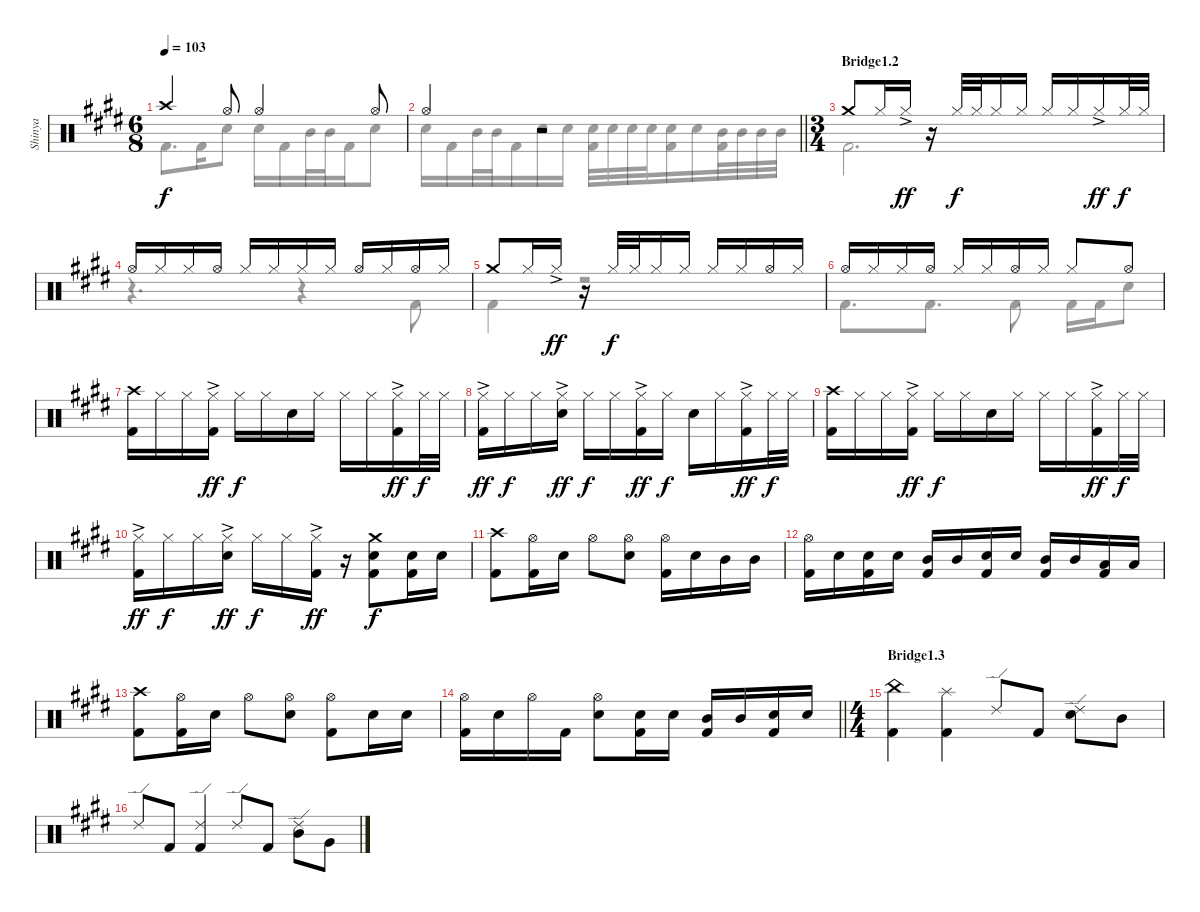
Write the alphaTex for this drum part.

\track ("Shinya" "Shinya") {instrument percussion}
\staff {score}
\articulation defaults
\voice
\ts (6 8)
\tempo 103
\clef neutral
\ks c#minor "Crash high (hit)".4{dy f} "Hi-Hat (open)".8 "Hi-Hat (open)".4 "Hi-Hat (open)".8
|
\barLineRight lightlight "Hi-Hat (open)".4
r.2 |
\ts (3 4)
\section ("" "Bridge1.2")
"Crash medium (hit)".8 "Hi-Hat (closed)".16 "Hi-Hat (closed)"{ac}.16{dy ff} r.16 "Hi-Hat (closed)".32{dy f} "Hi-Hat (closed)".32 "Hi-Hat (closed)".16 "Hi-Hat (closed)".16 "Hi-Hat (closed)".16 "Hi-Hat (closed)".16 "Hi-Hat (closed)"{ac}.16{dy ff} "Hi-Hat (closed)".32{dy f} "Hi-Hat (closed)".32 |
"Hi-Hat (open)".16 "Hi-Hat (closed)".16 "Hi-Hat (closed)".16 "Hi-Hat (open)".16 "Hi-Hat (closed)".16 "Hi-Hat (closed)".16 "Hi-Hat (closed)".16 "Hi-Hat (closed)".16 "Hi-Hat (open)".16 "Hi-Hat (closed)".16 "Hi-Hat (open)".16 "Hi-Hat (closed)".16 |
"Crash medium (hit)".8 "Hi-Hat (closed)".16 "Hi-Hat (closed)"{ac}.16{dy ff} r.16 "Hi-Hat (closed)".32{dy f} "Hi-Hat (closed)".32 "Hi-Hat (closed)".16 "Hi-Hat (closed)".16 "Hi-Hat (closed)".16 "Hi-Hat (closed)".16 "Hi-Hat (open)".16 "Hi-Hat (closed)".16 |
"Hi-Hat (open)".16 "Hi-Hat (closed)".16 "Hi-Hat (closed)".16 "Hi-Hat (open)".16 "Hi-Hat (closed)".16 "Hi-Hat (closed)".16 "Hi-Hat (open)".16 "Hi-Hat (closed)".16 "Hi-Hat (closed)".8 "Hi-Hat (open)".8 |
("Crash high (hit)" "Kick (hit) 2").16 "Hi-Hat (closed)".16 "Hi-Hat (closed)".16 ("Hi-Hat (closed)"{ac} "Kick (hit) 2").16{dy ff} "Hi-Hat (closed)".16{dy f} "Hi-Hat (closed)".16 "Snare (hit) 2".16 "Hi-Hat (closed)".16 "Hi-Hat (closed)".16 "Hi-Hat (closed)".16 ("Hi-Hat (closed)"{ac} "Kick (hit) 2").16{dy ff} "Hi-Hat (closed)".32{dy f} "Hi-Hat (closed)".32 |
("Hi-Hat (closed)"{ac} "Kick (hit) 2").16{dy ff} "Hi-Hat (closed)".16{dy f} "Hi-Hat (closed)".16 ("Hi-Hat (closed)"{ac} "Snare (hit) 2").16{dy ff} "Hi-Hat (closed)".16{dy f} "Hi-Hat (closed)".16 ("Hi-Hat (closed)"{ac} "Kick (hit) 2").16{dy ff} "Hi-Hat (closed)".16{dy f} "Snare (hit) 2".16 "Hi-Hat (closed)".16 ("Hi-Hat (closed)"{ac} "Kick (hit) 2").16{dy ff} "Hi-Hat (closed)".32{dy f} "Hi-Hat (closed)".32 |
("Crash high (hit)" "Kick (hit) 2").16 "Hi-Hat (closed)".16 "Hi-Hat (closed)".16 ("Hi-Hat (closed)"{ac} "Kick (hit) 2").16{dy ff} "Hi-Hat (closed)".16{dy f} "Hi-Hat (closed)".16 "Snare (hit) 2".16 "Hi-Hat (closed)".16 "Hi-Hat (closed)".16 "Hi-Hat (closed)".16 ("Hi-Hat (closed)"{ac} "Kick (hit) 2").16{dy ff} "Hi-Hat (closed)".32{dy f} "Hi-Hat (closed)".32 |
("Hi-Hat (closed)"{ac} "Kick (hit) 2").16{dy ff} "Hi-Hat (closed)".16{dy f} "Hi-Hat (closed)".16 ("Hi-Hat (closed)"{ac} "Snare (hit) 2").16{dy ff} "Hi-Hat (closed)".16{dy f} "Hi-Hat (closed)".16 ("Hi-Hat (closed)"{ac} "Kick (hit) 2").16{dy ff} r.16 ("Crash medium (hit)" "Snare (hit) 2" "Kick (hit) 2").8{dy f} ("Snare (hit) 2" "Kick (hit) 2").16 "Snare (hit) 2".16 |
("Crash high (hit)" "Kick (hit) 2").8 ("Hi-Hat (open)" "Kick (hit) 2").16 "Snare (hit) 2".16 "Hi-Hat (open)".8 ("Hi-Hat (open)" "Snare (hit) 2").8 ("Hi-Hat (open)" "Kick (hit) 2").16 "Snare (hit) 2".16 "Mid Tom (hit)".16 "Mid Tom (hit)".16 |
("Hi-Hat (open)" "Kick (hit) 2").16 "Snare (hit) 2".16 ("Snare (hit) 2" "Kick (hit) 2").16 "Snare (hit) 2".16 ("Mid Tom (hit)" "Kick (hit) 2").16 "Mid Tom (hit)".16 ("Snare (hit) 2" "Kick (hit) 2").16 "Snare (hit) 2".16 ("Mid Tom (hit)" "Kick (hit) 2").16 "Mid Tom (hit)".16 ("Low Tom (hit)" "Kick (hit) 2").16 "Low Tom (hit)".16 |
("Crash high (hit)" "Kick (hit) 2").8 ("Hi-Hat (open)" "Kick (hit) 2").16 "Snare (hit) 2".16 "Hi-Hat (open)".8 ("Hi-Hat (open)" "Snare (hit) 2").8 ("Hi-Hat (open)" "Kick (hit) 2").8 "Snare (hit) 2".16 "Snare (hit) 2".16 |
\barLineRight lightlight
("Hi-Hat (open)" "Kick (hit) 2").16 "Snare (hit) 2".16 "Hi-Hat (open)".16 "Kick (hit) 2".16 ("Hi-Hat (open)" "Snare (hit) 2").8 ("Snare (hit) 2" "Kick (hit) 2").16 "Snare (hit) 2".16 ("Mid Tom (hit)" "Kick (hit) 2").16 "Mid Tom (hit)".16 ("Snare (hit) 2" "Kick (hit) 2").16 "Snare (hit) 2".16 |
\ts (4 4)
\section ("" "Bridge1.3")
("China (hit)" "Kick (hit) 2").4 ("Splash (hit)" "Kick (hit) 2").4 "Ride (edge) 2".8 "Kick (hit) 2".8 ("Ride (edge) 2" "Snare (hit) 2").8 "Mid Tom (hit)".8 |
"Ride (edge) 2".8 "Kick (hit) 2".8 ("Ride (edge) 2" "Kick (hit) 2").4 "Ride (edge) 2".8 "Kick (hit) 2".8 ("Ride (edge) 2" "Mid Tom (hit)").8 "Very Low Tom (hit)".8
\voice
\clef neutral
\ottava regular
\simile none
\ks c#minor "Kick (hit) 2".8{d dy f} "Kick (hit) 2".16 "Snare (hit) 2".8 "Snare (hit) 2".16 "Kick (hit) 2".16 "Mid Tom (hit)".32 "Mid Tom (hit)".32 "Kick (hit) 2".16 "Snare (hit) 2".8
|
\barLineRight lightlight "Snare (hit) 2".16 "Kick (hit) 2".16 "Mid Tom (hit)".32 "Mid Tom (hit)".32 "Kick (hit) 2".16 "Snare (hit) 2".16 "Snare (hit) 2".16
("Kick (hit) 2" "Snare (hit) 2").32 "Snare (hit) 2".32 "Snare (hit) 2".32 "Snare (hit) 2".32 ("Kick (hit) 2" "Snare (hit) 2").16 "Snare (hit) 2".16 ("Kick (hit) 2" "Mid Tom (hit)").32 "Mid Tom (hit)".32 "Mid Tom (hit)".32 "Mid Tom (hit)".32 |
"Kick (hit) 2".2{d} |
r.4{d} r.4 "Kick (hit) 2".8 |
"Kick (hit) 2".4 r.2 |
"Kick (hit) 2".8{d} "Kick (hit) 2".8{d} "Kick (hit) 2".8 "Kick (hit) 2".16 "Kick (hit) 2".16 "Snare (hit) 2".8 |
|
|
|
|
|
|
|
\barLineRight lightlight
|
|
